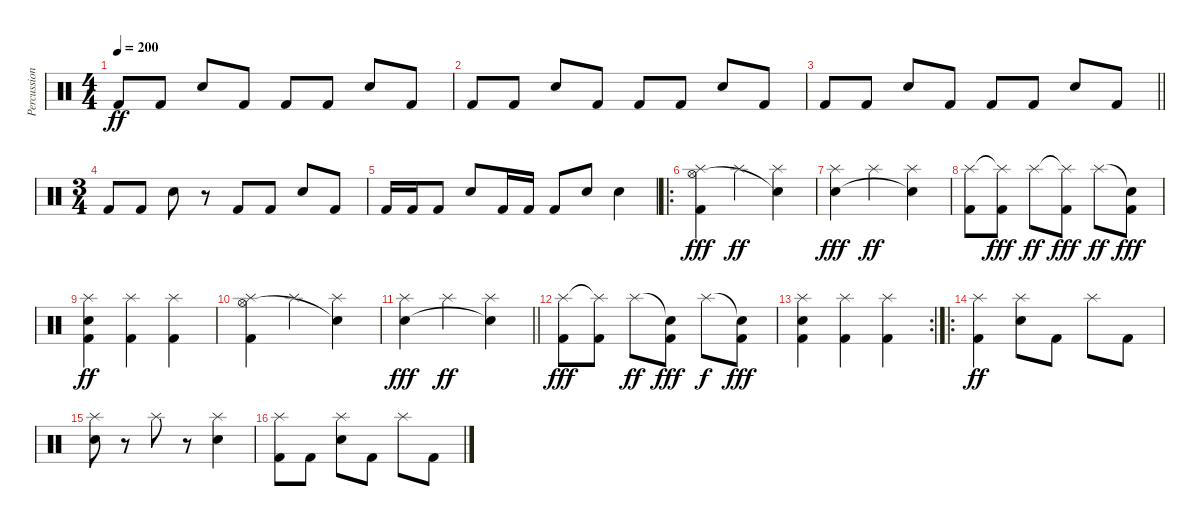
\track ("Percussion" "Percussion") {instrument percussion}
\staff {score}
\articulation defaults
\ts (4 4)
\tempo 200
\clef neutral
\ks c "Kick (hit) 2".8{dy ff} "Kick (hit) 2".8 "Electric Snare (hit)".8 "Kick (hit) 2".8 "Kick (hit) 2".8 "Kick (hit) 2".8 "Electric Snare (hit)".8 "Kick (hit) 2".8
|
"Kick (hit) 2".8 "Kick (hit) 2".8 "Electric Snare (hit)".8 "Kick (hit) 2".8 "Kick (hit) 2".8 "Kick (hit) 2".8 "Electric Snare (hit)".8 "Kick (hit) 2".8 |
\barLineRight lightlight "Kick (hit) 2".8 "Kick (hit) 2".8 "Electric Snare (hit)".8 "Kick (hit) 2".8 "Kick (hit) 2".8 "Kick (hit) 2".8 "Electric Snare (hit)".8 "Kick (hit) 2".8
|
\ts (3 4)
"Kick (hit) 2".8 "Kick (hit) 2".8 "Electric Snare (hit)".8 r.8 "Kick (hit) 2".8 "Kick (hit) 2".8 "Electric Snare (hit)".8 "Kick (hit) 2".8 |
"Kick (hit) 2".16 "Kick (hit) 2".16 "Kick (hit) 2".8 "Electric Snare (hit)".8 "Kick (hit) 2".16 "Kick (hit) 2".16 "Kick (hit) 2".8 "Electric Snare (hit)".8 "Electric Snare (hit)".4 |
\ro
("Splash (hit)" "Hi-Hat (open)" "Kick (hit) 2").4{dy fff} "Splash (hit)".4{dy ff} ("Splash (hit)" "Snare (hit)"{t}).4 |
("Splash (hit)" "Electric Snare (hit)").4{dy fff} "Splash (hit)".4{dy ff} ("Splash (hit)" "Snare (hit)"{t}).4 |
("Splash (hit)" "Kick (hit) 2").8 ("Splash (hit)"{t} "Kick (hit) 2").8{dy fff} "Splash (hit)".8{dy ff} ("Splash (hit)"{t} "Kick (hit) 2").8{dy fff} "Splash (hit)".8{dy ff} ("Snare (hit)"{t} "Kick (hit) 2").8{dy fff} |
("Splash (hit)" "Electric Snare (hit)" "Kick (hit) 2").4{dy ff} ("Splash (hit)" "Kick (hit) 2").4 ("Splash (hit)" "Kick (hit) 2").4 |
("Splash (hit)" "Hi-Hat (open)" "Kick (hit) 2").4 "Splash (hit)".4 ("Splash (hit)" "Snare (hit)"{t}).4 |
\barLineRight lightlight
("Splash (hit)" "Electric Snare (hit)").4{dy fff} "Splash (hit)".4{dy ff} ("Splash (hit)" "Snare (hit)"{t}).4 |
("Splash (hit)" "Kick (hit) 2").8{dy fff} ("Splash (hit)"{t} "Kick (hit) 2").8 "Splash (hit)".8{dy ff} ("Snare (hit)"{t} "Kick (hit) 2").8{dy fff} "Splash (hit)".8{dy f} ("Snare (hit)"{t} "Kick (hit) 2").8{dy fff} |
\rc 2
("Splash (hit)" "Electric Snare (hit)" "Kick (hit) 2").4 ("Splash (hit)" "Kick (hit) 2").4 ("Splash (hit)" "Kick (hit) 2").4 |
\ro
("Splash (hit)" "Kick (hit) 2").4{dy ff} ("Splash (hit)" "Electric Snare (hit)").8 "Kick (hit) 2".8 "Splash (hit)".8 "Kick (hit) 2".8 |
("Splash (hit)" "Electric Snare (hit)").8 r.8 "Splash (hit)".8 r.8 ("Splash (hit)" "Electric Snare (hit)").4 |
("Splash (hit)" "Kick (hit) 2").8 "Kick (hit) 2".8 ("Splash (hit)" "Electric Snare (hit)").8 "Kick (hit) 2".8 "Splash (hit)".8 "Kick (hit) 2".8
